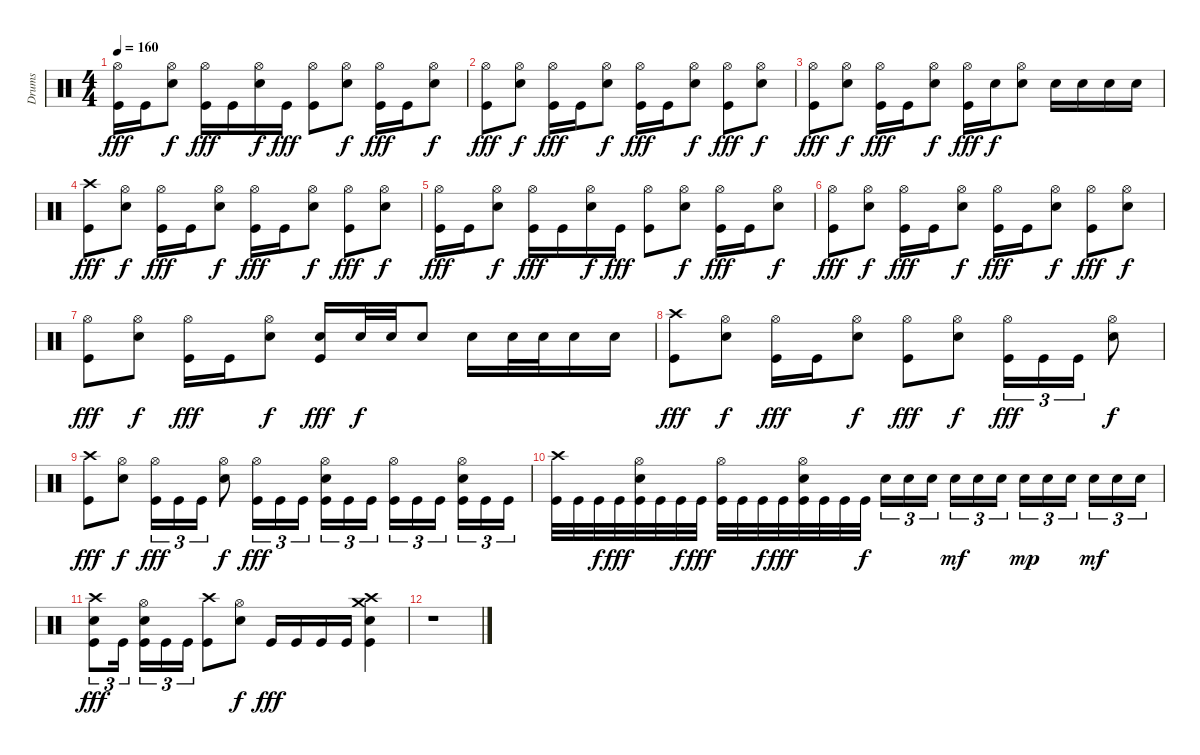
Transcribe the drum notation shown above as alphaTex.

\track ("Drums" "Drums") {instrument percussion}
\staff {score}
\articulation defaults
\ts (4 4)
\tempo 160
\clef neutral
\ks c
("Hi-Hat (open)" "Kick (hit)").16{dy fff} "Kick (hit)".16 ("Hi-Hat (open)" "Electric Snare (hit)").8{dy f} ("Hi-Hat (open)" "Kick (hit)").16{dy fff} "Kick (hit)".16 ("Hi-Hat (open)" "Electric Snare (hit)").16{dy f} "Kick (hit)".16{dy fff} ("Hi-Hat (open)" "Kick (hit)").8 ("Hi-Hat (open)" "Electric Snare (hit)").8{dy f} ("Hi-Hat (open)" "Kick (hit)").16{dy fff} "Kick (hit)".16 ("Hi-Hat (open)" "Electric Snare (hit)").8{dy f} |
("Hi-Hat (open)" "Kick (hit)").8{dy fff} ("Hi-Hat (open)" "Electric Snare (hit)").8{dy f} ("Hi-Hat (open)" "Kick (hit)").16{dy fff} "Kick (hit)".16 ("Hi-Hat (open)" "Electric Snare (hit)").8{dy f} ("Hi-Hat (open)" "Kick (hit)").16{dy fff} "Kick (hit)".16 ("Hi-Hat (open)" "Electric Snare (hit)").8{dy f} ("Hi-Hat (open)" "Kick (hit)").8{dy fff} ("Hi-Hat (open)" "Electric Snare (hit)").8{dy f} |
("Hi-Hat (open)" "Kick (hit)").8{dy fff} ("Hi-Hat (open)" "Electric Snare (hit)").8{dy f} ("Hi-Hat (open)" "Kick (hit)").16{dy fff} "Kick (hit)".16 ("Hi-Hat (open)" "Electric Snare (hit)").8{dy f} ("Hi-Hat (open)" "Kick (hit)").16{dy fff} "Electric Snare (hit)".16{dy f} ("Hi-Hat (open)" "Electric Snare (hit)").8 "Electric Snare (hit)".16 "Electric Snare (hit)".16 "Electric Snare (hit)".16 "Electric Snare (hit)".16 |
("Crash high (hit)" "Kick (hit)").8{dy fff} ("Hi-Hat (open)" "Electric Snare (hit)").8{dy f} ("Hi-Hat (open)" "Kick (hit)").16{dy fff} "Kick (hit)".16 ("Hi-Hat (open)" "Electric Snare (hit)").8{dy f} ("Hi-Hat (open)" "Kick (hit)").16{dy fff} "Kick (hit)".16 ("Hi-Hat (open)" "Electric Snare (hit)").8{dy f} ("Hi-Hat (open)" "Kick (hit)").8{dy fff} ("Hi-Hat (open)" "Electric Snare (hit)").8{dy f} |
("Hi-Hat (open)" "Kick (hit)").16{dy fff} "Kick (hit)".16 ("Hi-Hat (open)" "Electric Snare (hit)").8{dy f} ("Hi-Hat (open)" "Kick (hit)").16{dy fff} "Kick (hit)".16 ("Hi-Hat (open)" "Electric Snare (hit)").16{dy f} "Kick (hit)".16{dy fff} ("Hi-Hat (open)" "Kick (hit)").8 ("Hi-Hat (open)" "Electric Snare (hit)").8{dy f} ("Hi-Hat (open)" "Kick (hit)").16{dy fff} "Kick (hit)".16 ("Hi-Hat (open)" "Electric Snare (hit)").8{dy f} |
("Hi-Hat (open)" "Kick (hit)").8{dy fff} ("Hi-Hat (open)" "Electric Snare (hit)").8{dy f} ("Hi-Hat (open)" "Kick (hit)").16{dy fff} "Kick (hit)".16 ("Hi-Hat (open)" "Electric Snare (hit)").8{dy f} ("Hi-Hat (open)" "Kick (hit)").16{dy fff} "Kick (hit)".16 ("Hi-Hat (open)" "Electric Snare (hit)").8{dy f} ("Hi-Hat (open)" "Kick (hit)").8{dy fff} ("Hi-Hat (open)" "Electric Snare (hit)").8{dy f} |
("Hi-Hat (open)" "Kick (hit)").8{dy fff} ("Hi-Hat (open)" "Electric Snare (hit)").8{dy f} ("Hi-Hat (open)" "Kick (hit)").16{dy fff} "Kick (hit)".16 ("Hi-Hat (open)" "Electric Snare (hit)").8{dy f} ("Electric Snare (hit)" "Kick (hit)").16{dy fff} "Electric Snare (hit)".32{dy f} "Electric Snare (hit)".32 "Electric Snare (hit)".8 "Electric Snare (hit)".16 "Electric Snare (hit)".32 "Electric Snare (hit)".32 "Electric Snare (hit)".16 "Electric Snare (hit)".16 |
("Crash high (hit)" "Kick (hit)").8{dy fff} ("Hi-Hat (open)" "Electric Snare (hit)").8{dy f} ("Hi-Hat (open)" "Kick (hit)").16{dy fff} "Kick (hit)".16 ("Hi-Hat (open)" "Electric Snare (hit)").8{dy f} ("Hi-Hat (open)" "Kick (hit)").8{dy fff} ("Hi-Hat (open)" "Electric Snare (hit)").8{dy f} ("Hi-Hat (open)" "Kick (hit)").16{tu (3 2) dy fff} "Kick (hit)".16{tu (3 2)} "Kick (hit)".16{tu (3 2)} ("Hi-Hat (open)" "Electric Snare (hit)").8{dy f} |
("Crash high (hit)" "Kick (hit)").8{dy fff} ("Hi-Hat (open)" "Electric Snare (hit)").8{dy f} ("Hi-Hat (open)" "Kick (hit)").16{tu (3 2) dy fff} "Kick (hit)".16{tu (3 2)} "Kick (hit)".16{tu (3 2)} ("Hi-Hat (open)" "Electric Snare (hit)").8{dy f} ("Hi-Hat (open)" "Kick (hit)").16{tu (3 2) dy fff} "Kick (hit)".16{tu (3 2)} "Kick (hit)".16{tu (3 2)} ("Hi-Hat (open)" "Electric Snare (hit)" "Kick (hit)").16{tu (3 2)} "Kick (hit)".16{tu (3 2)} "Kick (hit)".16{tu (3 2)} ("Hi-Hat (open)" "Kick (hit)").16{tu (3 2)} "Kick (hit)".16{tu (3 2)} "Kick (hit)".16{tu (3 2)} ("Hi-Hat (open)" "Electric Snare (hit)" "Kick (hit)").16{tu (3 2)} "Kick (hit)".16{tu (3 2)} "Kick (hit)".16{tu (3 2)} |
("Crash high (hit)" "Kick (hit)").32 "Kick (hit)".32 "Kick (hit)".32{dy f} "Kick (hit)".32{dy fff} ("Hi-Hat (open)" "Electric Snare (hit)" "Kick (hit)").32 "Kick (hit)".32 "Kick (hit)".32{dy f} "Kick (hit)".32{dy fff} ("Hi-Hat (open)" "Kick (hit)").32 "Kick (hit)".32 "Kick (hit)".32{dy f} "Kick (hit)".32{dy fff} ("Hi-Hat (open)" "Electric Snare (hit)" "Kick (hit)").32 "Kick (hit)".32 "Kick (hit)".32 "Kick (hit)".32{dy f} "Electric Snare (hit)".16{tu (3 2)} "Electric Snare (hit)".16{tu (3 2)} "Electric Snare (hit)".16{tu (3 2)} "Electric Snare (hit)".16{tu (3 2) dy mf} "Electric Snare (hit)".16{tu (3 2)} "Electric Snare (hit)".16{tu (3 2)} "Electric Snare (hit)".16{tu (3 2) dy mp} "Electric Snare (hit)".16{tu (3 2)} "Electric Snare (hit)".16{tu (3 2)} "Electric Snare (hit)".16{tu (3 2) dy mf} "Electric Snare (hit)".16{tu (3 2)} "Electric Snare (hit)".16{tu (3 2)} |
("Crash high (hit)" "Electric Snare (hit)" "Kick (hit)").8{tu (3 2) dy fff} "Kick (hit)".16{tu (3 2)} ("Hi-Hat (open)" "Electric Snare (hit)" "Kick (hit)").16{tu (3 2)} "Kick (hit)".16{tu (3 2)} "Kick (hit)".16{tu (3 2)} ("Crash high (hit)" "Kick (hit)").8 ("Hi-Hat (open)" "Electric Snare (hit)").8{dy f} "Kick (hit)".16{dy fff} "Kick (hit)".16 "Kick (hit)".16 "Kick (hit)".16 ("Crash high (hit)" "Crash medium (hit)" "Electric Snare (hit)" "Kick (hit)").4 |
r.1
